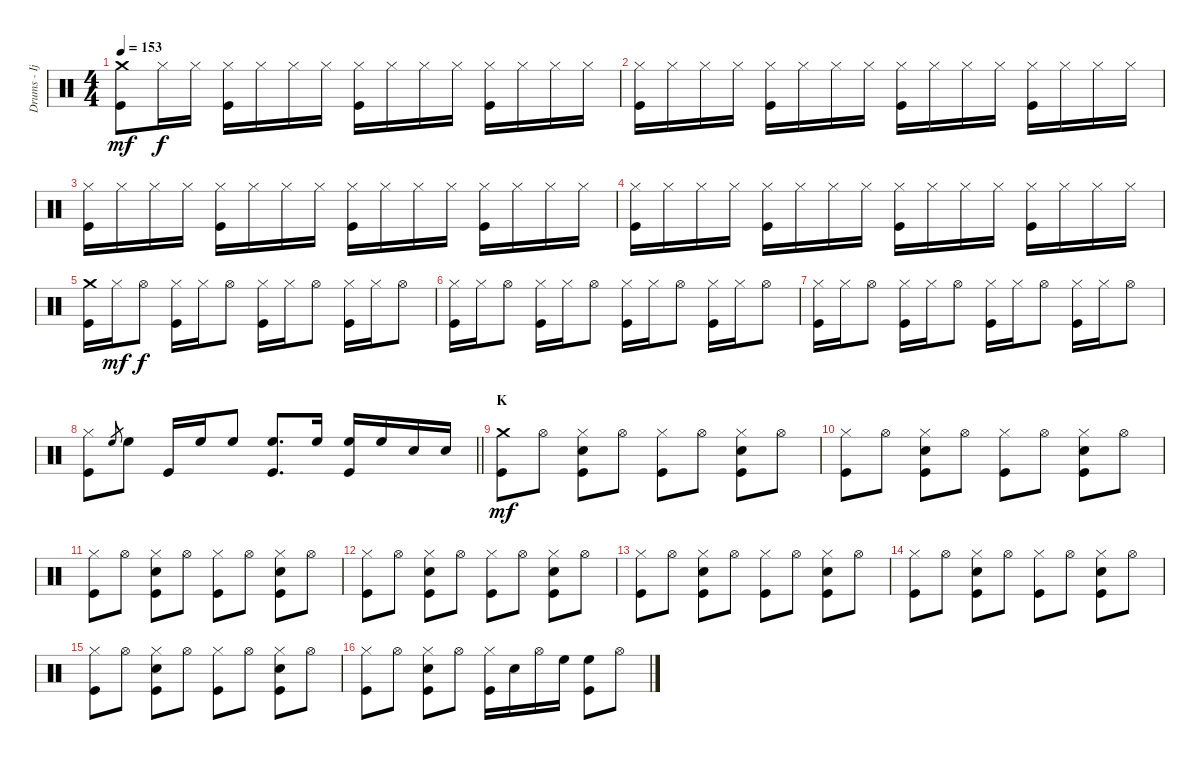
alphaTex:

\track ("Drums - Ijichi" "Drums - Ij") {instrument percussion}
\staff {score}
\articulation defaults
\ts (4 4)
\tempo 153
\clef neutral
\ks c
("Crash medium (hit)" "Kick (hit)").8{dy mf} "Hi-Hat (closed)".16{dy f} "Hi-Hat (closed)".16 ("Hi-Hat (closed)" "Kick (hit)").16 "Hi-Hat (closed)".16 "Hi-Hat (closed)".16 "Hi-Hat (closed)".16 ("Hi-Hat (closed)" "Kick (hit)").16 "Hi-Hat (closed)".16 "Hi-Hat (closed)".16 "Hi-Hat (closed)".16 ("Hi-Hat (closed)" "Kick (hit)").16 "Hi-Hat (closed)".16 "Hi-Hat (closed)".16 "Hi-Hat (closed)".16 |
("Hi-Hat (closed)" "Kick (hit)").16 "Hi-Hat (closed)".16 "Hi-Hat (closed)".16 "Hi-Hat (closed)".16 ("Hi-Hat (closed)" "Kick (hit)").16 "Hi-Hat (closed)".16 "Hi-Hat (closed)".16 "Hi-Hat (closed)".16 ("Hi-Hat (closed)" "Kick (hit)").16 "Hi-Hat (closed)".16 "Hi-Hat (closed)".16 "Hi-Hat (closed)".16 ("Hi-Hat (closed)" "Kick (hit)").16 "Hi-Hat (closed)".16 "Hi-Hat (closed)".16 "Hi-Hat (closed)".16 |
("Hi-Hat (closed)" "Kick (hit)").16 "Hi-Hat (closed)".16 "Hi-Hat (closed)".16 "Hi-Hat (closed)".16 ("Hi-Hat (closed)" "Kick (hit)").16 "Hi-Hat (closed)".16 "Hi-Hat (closed)".16 "Hi-Hat (closed)".16 ("Hi-Hat (closed)" "Kick (hit)").16 "Hi-Hat (closed)".16 "Hi-Hat (closed)".16 "Hi-Hat (closed)".16 ("Hi-Hat (closed)" "Kick (hit)").16 "Hi-Hat (closed)".16 "Hi-Hat (closed)".16 "Hi-Hat (closed)".16 |
("Hi-Hat (closed)" "Kick (hit)").16 "Hi-Hat (closed)".16 "Hi-Hat (closed)".16 "Hi-Hat (closed)".16 ("Hi-Hat (closed)" "Kick (hit)").16 "Hi-Hat (closed)".16 "Hi-Hat (closed)".16 "Hi-Hat (closed)".16 ("Hi-Hat (closed)" "Kick (hit)").16 "Hi-Hat (closed)".16 "Hi-Hat (closed)".16 "Hi-Hat (closed)".16 ("Hi-Hat (closed)" "Kick (hit)").16 "Hi-Hat (closed)".16 "Hi-Hat (closed)".16 "Hi-Hat (closed)".16 |
("Crash medium (hit)" "Kick (hit)").16 "Hi-Hat (closed)".16{dy mf} "Hi-Hat (open)".8{dy f} ("Hi-Hat (closed)" "Kick (hit)").16 "Hi-Hat (closed)".16 "Hi-Hat (open)".8 ("Hi-Hat (closed)" "Kick (hit)").16 "Hi-Hat (closed)".16 "Hi-Hat (open)".8 ("Hi-Hat (closed)" "Kick (hit)").16 "Hi-Hat (closed)".16 "Hi-Hat (open)".8 |
("Hi-Hat (closed)" "Kick (hit)").16 "Hi-Hat (closed)".16 "Hi-Hat (open)".8 ("Hi-Hat (closed)" "Kick (hit)").16 "Hi-Hat (closed)".16 "Hi-Hat (open)".8 ("Hi-Hat (closed)" "Kick (hit)").16 "Hi-Hat (closed)".16 "Hi-Hat (open)".8 ("Hi-Hat (closed)" "Kick (hit)").16 "Hi-Hat (closed)".16 "Hi-Hat (open)".8 |
("Hi-Hat (closed)" "Kick (hit)").16 "Hi-Hat (closed)".16 "Hi-Hat (open)".8 ("Hi-Hat (closed)" "Kick (hit)").16 "Hi-Hat (closed)".16 "Hi-Hat (open)".8 ("Hi-Hat (closed)" "Kick (hit)").16 "Hi-Hat (closed)".16 "Hi-Hat (open)".8 ("Hi-Hat (closed)" "Kick (hit)").16 "Hi-Hat (closed)".16 "Hi-Hat (open)".8 |
\barLineRight lightlight
("Hi-Hat (closed)" "Kick (hit)").8 "High Floor Tom (hit)".8{gr} "High Floor Tom (hit)".8 "Kick (hit)".16 "High Floor Tom (hit)".16 "High Floor Tom (hit)".8 ("High Floor Tom (hit)" "Kick (hit)").8{d} "High Floor Tom (hit)".16 ("High Floor Tom (hit)" "Kick (hit)").16 "High Floor Tom (hit)".16 "Electric Snare (hit)".16 "Electric Snare (hit)".16 |
\section ("" "K")
("Crash medium (hit)" "Kick (hit)").8{dy mf} "Hi-Hat (open)".8 ("Hi-Hat (closed)" "Electric Snare (hit)" "Kick (hit)").8 "Hi-Hat (open)".8 ("Hi-Hat (closed)" "Kick (hit)").8 "Hi-Hat (open)".8 ("Hi-Hat (closed)" "Electric Snare (hit)" "Kick (hit)").8 "Hi-Hat (open)".8 |
("Hi-Hat (closed)" "Kick (hit)").8 "Hi-Hat (open)".8 ("Hi-Hat (closed)" "Electric Snare (hit)" "Kick (hit)").8 "Hi-Hat (open)".8 ("Hi-Hat (closed)" "Kick (hit)").8 "Hi-Hat (open)".8 ("Hi-Hat (closed)" "Electric Snare (hit)" "Kick (hit)").8 "Hi-Hat (open)".8 |
("Hi-Hat (closed)" "Kick (hit)").8 "Hi-Hat (open)".8 ("Hi-Hat (closed)" "Electric Snare (hit)" "Kick (hit)").8 "Hi-Hat (open)".8 ("Hi-Hat (closed)" "Kick (hit)").8 "Hi-Hat (open)".8 ("Hi-Hat (closed)" "Electric Snare (hit)" "Kick (hit)").8 "Hi-Hat (open)".8 |
("Hi-Hat (closed)" "Kick (hit)").8 "Hi-Hat (open)".8 ("Hi-Hat (closed)" "Electric Snare (hit)" "Kick (hit)").8 "Hi-Hat (open)".8 ("Hi-Hat (closed)" "Kick (hit)").8 "Hi-Hat (open)".8 ("Hi-Hat (closed)" "Electric Snare (hit)" "Kick (hit)").8 "Hi-Hat (open)".8 |
("Hi-Hat (closed)" "Kick (hit)").8 "Hi-Hat (open)".8 ("Hi-Hat (closed)" "Electric Snare (hit)" "Kick (hit)").8 "Hi-Hat (open)".8 ("Hi-Hat (closed)" "Kick (hit)").8 "Hi-Hat (open)".8 ("Hi-Hat (closed)" "Electric Snare (hit)" "Kick (hit)").8 "Hi-Hat (open)".8 |
("Hi-Hat (closed)" "Kick (hit)").8 "Hi-Hat (open)".8 ("Hi-Hat (closed)" "Electric Snare (hit)" "Kick (hit)").8 "Hi-Hat (open)".8 ("Hi-Hat (closed)" "Kick (hit)").8 "Hi-Hat (open)".8 ("Hi-Hat (closed)" "Electric Snare (hit)" "Kick (hit)").8 "Hi-Hat (open)".8 |
("Hi-Hat (closed)" "Kick (hit)").8 "Hi-Hat (open)".8 ("Hi-Hat (closed)" "Electric Snare (hit)" "Kick (hit)").8 "Hi-Hat (open)".8 ("Hi-Hat (closed)" "Kick (hit)").8 "Hi-Hat (open)".8 ("Hi-Hat (closed)" "Electric Snare (hit)" "Kick (hit)").8 "Hi-Hat (open)".8 |
("Hi-Hat (closed)" "Kick (hit)").8 "Hi-Hat (open)".8 ("Hi-Hat (closed)" "Electric Snare (hit)" "Kick (hit)").8 "Hi-Hat (open)".8 ("Hi-Hat (closed)" "Kick (hit)").16 "Electric Snare (hit)".16 "Hi-Hat (open)".16 "High Floor Tom (hit)".16 ("High Floor Tom (hit)" "Kick (hit)").8 "Hi-Hat (open)".8
